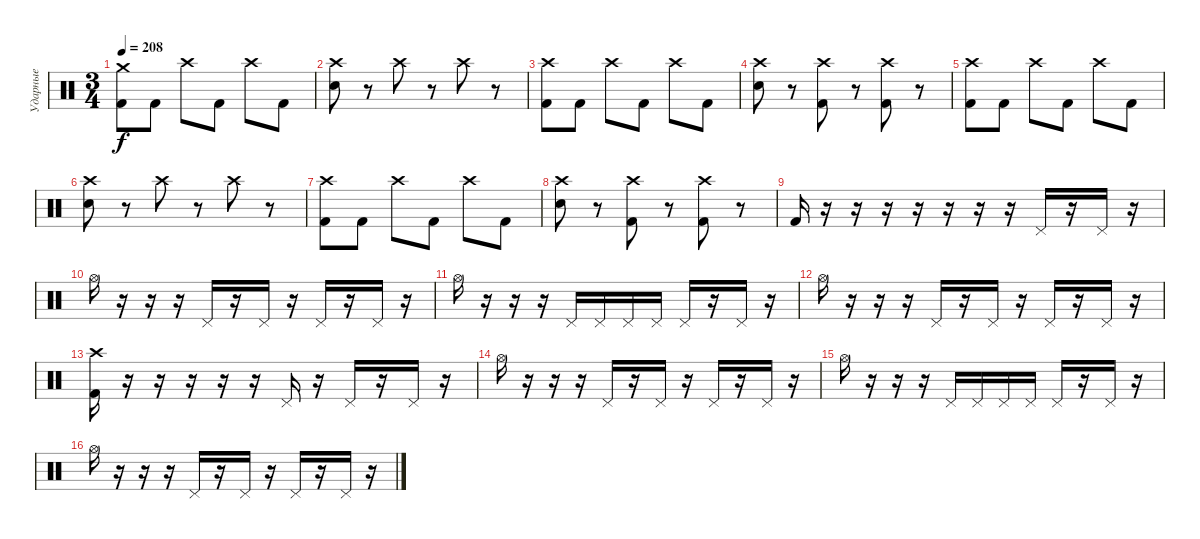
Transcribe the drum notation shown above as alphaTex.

\track ("Ударные" "Ударные") {instrument percussion}
\staff {score}
\articulation defaults
\ts (3 4)
\tempo 208
\clef neutral
\ks c
("Crash medium (hit)" "Kick (hit) 2").8{dy f} "Kick (hit) 2".8 "Crash high (hit)".8 "Kick (hit) 2".8 "Crash high (hit)".8 "Kick (hit) 2".8 |
("Crash high (hit)" "Electric Snare (hit)").8 r.8 "Crash high (hit)".8 r.8 "Crash high (hit)".8 r.8 |
("Crash high (hit)" "Kick (hit) 2").8 "Kick (hit) 2".8 "Crash high (hit)".8 "Kick (hit) 2".8 "Crash high (hit)".8 "Kick (hit) 2".8 |
("Crash high (hit)" "Electric Snare (hit)").8 r.8 ("Crash high (hit)" "Kick (hit) 2").8 r.8 ("Crash high (hit)" "Kick (hit) 2").8 r.8 |
("Crash high (hit)" "Kick (hit) 2").8 "Kick (hit) 2".8 "Crash high (hit)".8 "Kick (hit) 2".8 "Crash high (hit)".8 "Kick (hit) 2".8 |
("Crash high (hit)" "Electric Snare (hit)").8 r.8 "Crash high (hit)".8 r.8 "Crash high (hit)".8 r.8 |
("Crash high (hit)" "Kick (hit) 2").8 "Kick (hit) 2".8 "Crash high (hit)".8 "Kick (hit) 2".8 "Crash high (hit)".8 "Kick (hit) 2".8 |
("Crash high (hit)" "Electric Snare (hit)").8 r.8 ("Crash high (hit)" "Kick (hit) 2").8 r.8 ("Crash high (hit)" "Kick (hit) 2").8 r.8 |
"Kick (hit) 2".16 r.16 r.16 r.16 r.16 r.16 r.16 r.16 "Pedal Hi-Hat (hit)".16 r.16 "Pedal Hi-Hat (hit)".16 r.16 |
"Hi-Hat (open)".16 r.16 r.16 r.16 "Pedal Hi-Hat (hit)".16 r.16 "Pedal Hi-Hat (hit)".16 r.16 "Pedal Hi-Hat (hit)".16 r.16 "Pedal Hi-Hat (hit)".16 r.16 |
"Hi-Hat (open)".16 r.16 r.16 r.16 "Pedal Hi-Hat (hit)".16 "Pedal Hi-Hat (hit)".16 "Pedal Hi-Hat (hit)".16 "Pedal Hi-Hat (hit)".16 "Pedal Hi-Hat (hit)".16 r.16 "Pedal Hi-Hat (hit)".16 r.16 |
"Hi-Hat (open)".16 r.16 r.16 r.16 "Pedal Hi-Hat (hit)".16 r.16 "Pedal Hi-Hat (hit)".16 r.16 "Pedal Hi-Hat (hit)".16 r.16 "Pedal Hi-Hat (hit)".16 r.16 |
("Crash high (hit)" "Kick (hit) 2").16 r.16 r.16 r.16 r.16 r.16 "Pedal Hi-Hat (hit)".16 r.16 "Pedal Hi-Hat (hit)".16 r.16 "Pedal Hi-Hat (hit)".16 r.16 |
"Hi-Hat (open)".16 r.16 r.16 r.16 "Pedal Hi-Hat (hit)".16 r.16 "Pedal Hi-Hat (hit)".16 r.16 "Pedal Hi-Hat (hit)".16 r.16 "Pedal Hi-Hat (hit)".16 r.16 |
"Hi-Hat (open)".16 r.16 r.16 r.16 "Pedal Hi-Hat (hit)".16 "Pedal Hi-Hat (hit)".16 "Pedal Hi-Hat (hit)".16 "Pedal Hi-Hat (hit)".16 "Pedal Hi-Hat (hit)".16 r.16 "Pedal Hi-Hat (hit)".16 r.16 |
"Hi-Hat (open)".16 r.16 r.16 r.16 "Pedal Hi-Hat (hit)".16 r.16 "Pedal Hi-Hat (hit)".16 r.16 "Pedal Hi-Hat (hit)".16 r.16 "Pedal Hi-Hat (hit)".16 r.16
